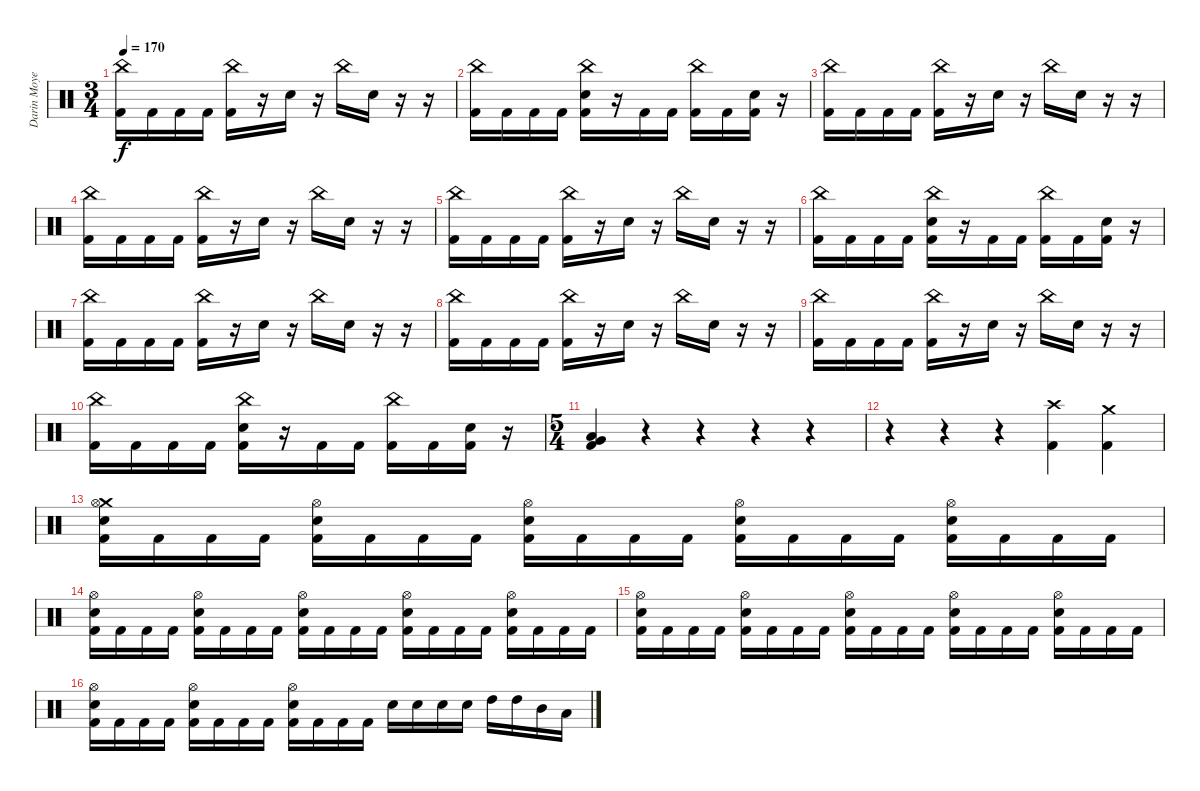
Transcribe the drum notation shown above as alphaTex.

\track ("Darin Moyen" "Darin Moye") {instrument percussion}
\staff {score}
\articulation defaults
\ts (3 4)
\tempo 170
\clef neutral
\ks c
("China (hit)" "Kick (hit) 2").16{dy f} "Kick (hit) 2".16 "Kick (hit) 2".16 "Kick (hit) 2".16 ("China (hit)" "Kick (hit) 2").16 r.16 "Electric Snare (hit)".16 r.16 "China (hit)".16 "Electric Snare (hit)".16 r.16 r.16 |
("China (hit)" "Kick (hit) 2").16 "Kick (hit) 2".16 "Kick (hit) 2".16 "Kick (hit) 2".16 ("China (hit)" "Electric Snare (hit)" "Kick (hit) 2").16 r.16 "Kick (hit) 2".16 "Kick (hit) 2".16 ("China (hit)" "Kick (hit) 2").16 "Kick (hit) 2".16 ("Electric Snare (hit)" "Kick (hit) 2").16 r.16 |
("China (hit)" "Kick (hit) 2").16 "Kick (hit) 2".16 "Kick (hit) 2".16 "Kick (hit) 2".16 ("China (hit)" "Kick (hit) 2").16 r.16 "Electric Snare (hit)".16 r.16 "China (hit)".16 "Electric Snare (hit)".16 r.16 r.16 |
("China (hit)" "Kick (hit) 2").16 "Kick (hit) 2".16 "Kick (hit) 2".16 "Kick (hit) 2".16 ("China (hit)" "Kick (hit) 2").16 r.16 "Electric Snare (hit)".16 r.16 "China (hit)".16 "Electric Snare (hit)".16 r.16 r.16 |
("China (hit)" "Kick (hit) 2").16 "Kick (hit) 2".16 "Kick (hit) 2".16 "Kick (hit) 2".16 ("China (hit)" "Kick (hit) 2").16 r.16 "Electric Snare (hit)".16 r.16 "China (hit)".16 "Electric Snare (hit)".16 r.16 r.16 |
("China (hit)" "Kick (hit) 2").16 "Kick (hit) 2".16 "Kick (hit) 2".16 "Kick (hit) 2".16 ("China (hit)" "Electric Snare (hit)" "Kick (hit) 2").16 r.16 "Kick (hit) 2".16 "Kick (hit) 2".16 ("China (hit)" "Kick (hit) 2").16 "Kick (hit) 2".16 ("Electric Snare (hit)" "Kick (hit) 2").16 r.16 |
("China (hit)" "Kick (hit) 2").16 "Kick (hit) 2".16 "Kick (hit) 2".16 "Kick (hit) 2".16 ("China (hit)" "Kick (hit) 2").16 r.16 "Electric Snare (hit)".16 r.16 "China (hit)".16 "Electric Snare (hit)".16 r.16 r.16 |
("China (hit)" "Kick (hit) 2").16 "Kick (hit) 2".16 "Kick (hit) 2".16 "Kick (hit) 2".16 ("China (hit)" "Kick (hit) 2").16 r.16 "Electric Snare (hit)".16 r.16 "China (hit)".16 "Electric Snare (hit)".16 r.16 r.16 |
("China (hit)" "Kick (hit) 2").16 "Kick (hit) 2".16 "Kick (hit) 2".16 "Kick (hit) 2".16 ("China (hit)" "Kick (hit) 2").16 r.16 "Electric Snare (hit)".16 r.16 "China (hit)".16 "Electric Snare (hit)".16 r.16 r.16 |
("China (hit)" "Kick (hit) 2").16 "Kick (hit) 2".16 "Kick (hit) 2".16 "Kick (hit) 2".16 ("China (hit)" "Electric Snare (hit)" "Kick (hit) 2").16 r.16 "Kick (hit) 2".16 "Kick (hit) 2".16 ("China (hit)" "Kick (hit) 2").16 "Kick (hit) 2".16 ("Electric Snare (hit)" "Kick (hit) 2").16 r.16 |
\ts (5 4)
("Low Tom (hit)" "Very Low Tom (hit)" "Kick (hit) 2").4 r.4 r.4 r.4 r.4 |
r.4 r.4 r.4 ("Crash high (hit)" "Kick (hit) 2").4 ("Crash medium (hit)" "Kick (hit) 2").4 |
("Crash medium (hit)" "Hi-Hat (open)" "Electric Snare (hit)" "Kick (hit) 2").16 "Kick (hit) 2".16 "Kick (hit) 2".16 "Kick (hit) 2".16 ("Hi-Hat (open)" "Electric Snare (hit)" "Kick (hit) 2").16 "Kick (hit) 2".16 "Kick (hit) 2".16 "Kick (hit) 2".16 ("Hi-Hat (open)" "Electric Snare (hit)" "Kick (hit) 2").16 "Kick (hit) 2".16 "Kick (hit) 2".16 "Kick (hit) 2".16 ("Hi-Hat (open)" "Electric Snare (hit)" "Kick (hit) 2").16 "Kick (hit) 2".16 "Kick (hit) 2".16 "Kick (hit) 2".16 ("Hi-Hat (open)" "Electric Snare (hit)" "Kick (hit) 2").16 "Kick (hit) 2".16 "Kick (hit) 2".16 "Kick (hit) 2".16 |
("Hi-Hat (open)" "Electric Snare (hit)" "Kick (hit) 2").16 "Kick (hit) 2".16 "Kick (hit) 2".16 "Kick (hit) 2".16 ("Hi-Hat (open)" "Electric Snare (hit)" "Kick (hit) 2").16 "Kick (hit) 2".16 "Kick (hit) 2".16 "Kick (hit) 2".16 ("Hi-Hat (open)" "Electric Snare (hit)" "Kick (hit) 2").16 "Kick (hit) 2".16 "Kick (hit) 2".16 "Kick (hit) 2".16 ("Hi-Hat (open)" "Electric Snare (hit)" "Kick (hit) 2").16 "Kick (hit) 2".16 "Kick (hit) 2".16 "Kick (hit) 2".16 ("Hi-Hat (open)" "Electric Snare (hit)" "Kick (hit) 2").16 "Kick (hit) 2".16 "Kick (hit) 2".16 "Kick (hit) 2".16 |
("Hi-Hat (open)" "Electric Snare (hit)" "Kick (hit) 2").16 "Kick (hit) 2".16 "Kick (hit) 2".16 "Kick (hit) 2".16 ("Hi-Hat (open)" "Electric Snare (hit)" "Kick (hit) 2").16 "Kick (hit) 2".16 "Kick (hit) 2".16 "Kick (hit) 2".16 ("Hi-Hat (open)" "Electric Snare (hit)" "Kick (hit) 2").16 "Kick (hit) 2".16 "Kick (hit) 2".16 "Kick (hit) 2".16 ("Hi-Hat (open)" "Electric Snare (hit)" "Kick (hit) 2").16 "Kick (hit) 2".16 "Kick (hit) 2".16 "Kick (hit) 2".16 ("Hi-Hat (open)" "Electric Snare (hit)" "Kick (hit) 2").16 "Kick (hit) 2".16 "Kick (hit) 2".16 "Kick (hit) 2".16 |
("Hi-Hat (open)" "Electric Snare (hit)" "Kick (hit) 2").16 "Kick (hit) 2".16 "Kick (hit) 2".16 "Kick (hit) 2".16 ("Hi-Hat (open)" "Electric Snare (hit)" "Kick (hit) 2").16 "Kick (hit) 2".16 "Kick (hit) 2".16 "Kick (hit) 2".16 ("Hi-Hat (open)" "Electric Snare (hit)" "Kick (hit) 2").16 "Kick (hit) 2".16 "Kick (hit) 2".16 "Kick (hit) 2".16 "Electric Snare (hit)".16 "Electric Snare (hit)".16 "Electric Snare (hit)".16 "Electric Snare (hit)".16 "High Tom (hit)".16 "High Tom (hit)".16 "Mid Tom (hit)".16 "Low Tom (hit)".16
